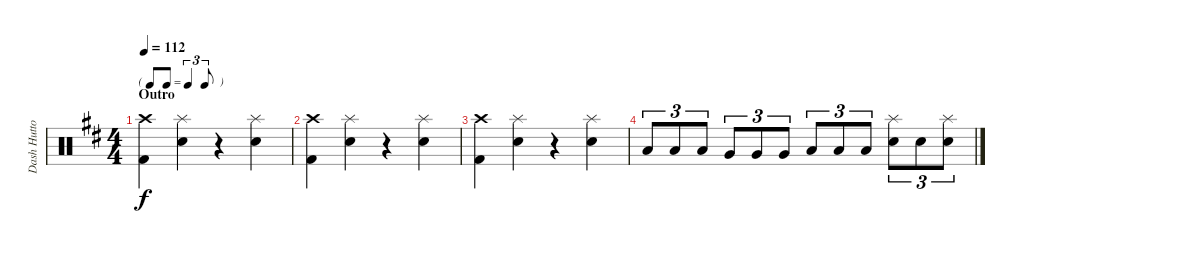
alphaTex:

\track ("Dash Hutton" "Dash Hutto") {instrument percussion}
\staff {score}
\articulation defaults
\ts (4 4)
\tf triplet8th
\section ("" "Outro")
\tempo 112
\clef neutral
\ks d
("Crash high (hit)" "Kick (hit) 2").4{dy f} ("Splash (hit)" "Snare (hit) 2").4 r.4 ("Splash (hit)" "Snare (hit) 2").4 |
("Crash high (hit)" "Kick (hit) 2").4 ("Splash (hit)" "Snare (hit) 2").4 r.4 ("Splash (hit)" "Snare (hit) 2").4 |
("Crash high (hit)" "Kick (hit) 2").4 ("Splash (hit)" "Snare (hit) 2").4 r.4 ("Splash (hit)" "Snare (hit) 2").4 |
"Low Tom (hit)".8{tu (3 2)} "Low Tom (hit)".8{tu (3 2)} "Low Tom (hit)".8{tu (3 2)} "Very Low Tom (hit)".8{tu (3 2)} "Very Low Tom (hit)".8{tu (3 2)} "Very Low Tom (hit)".8{tu (3 2)} "Low Tom (hit)".8{tu (3 2)} "Low Tom (hit)".8{tu (3 2)} "Low Tom (hit)".8{tu (3 2)} ("Splash (hit)" "Snare (hit) 2").8{tu (3 2)} "Snare (hit) 2".8{tu (3 2)} ("Splash (hit)" "Snare (hit) 2").8{tu (3 2)}
